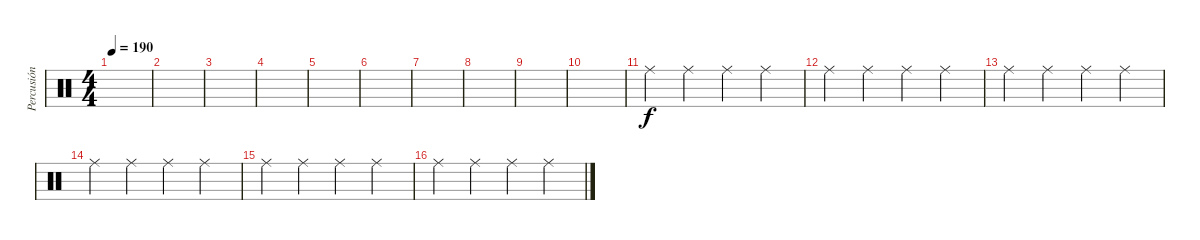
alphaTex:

\track ("Percusión" "Percusión") {instrument percussion}
\staff {score}
\articulation defaults
\ts (4 4)
\tempo 190
\clef neutral
\ks c
|
|
|
|
|
|
|
|
|
|
"Ride (middle)".4 "Ride (middle)".4 "Ride (middle)".4 "Ride (middle)".4 |
"Ride (middle)".4 "Ride (middle)".4 "Ride (middle)".4 "Ride (middle)".4 |
"Ride (middle)".4 "Ride (middle)".4 "Ride (middle)".4 "Ride (middle)".4 |
"Ride (middle)".4 "Ride (middle)".4 "Ride (middle)".4 "Ride (middle)".4 |
"Ride (middle)".4 "Ride (middle)".4 "Ride (middle)".4 "Ride (middle)".4 |
"Ride (middle)".4 "Ride (middle)".4 "Ride (middle)".4 "Ride (middle)".4
